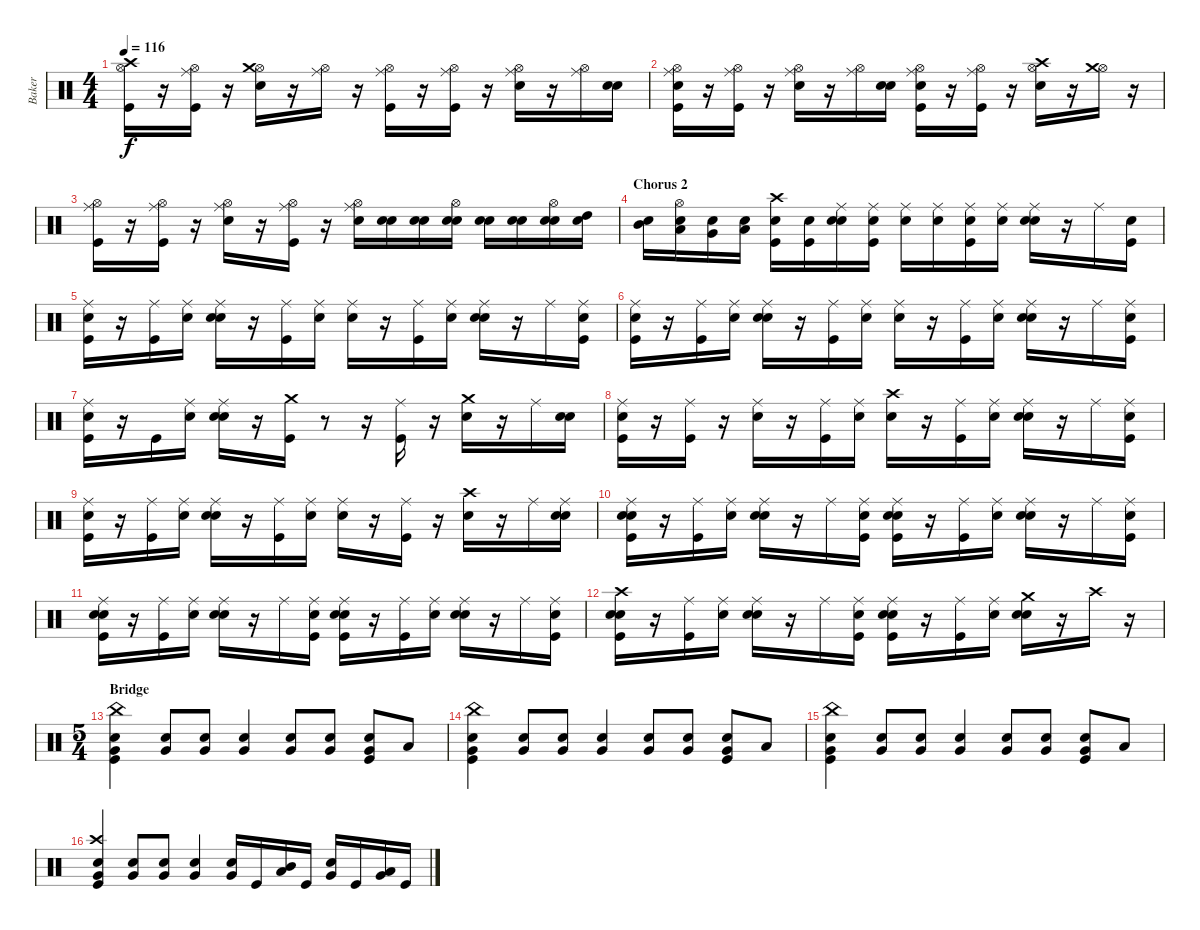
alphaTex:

\track ("Baker" "Baker") {instrument percussion}
\staff {score}
\articulation defaults
\ts (4 4)
\tempo 116
\clef neutral
\ks c
("Kick (hit)" "Hi-Hat (open)" "Crash high (hit)").16{dy f} r.16 ("Kick (hit)" "Hi-Hat (open)" "Ride (middle)").16 r.16 ("Electric Snare (hit)" "Hi-Hat (open)" "Crash medium (hit)").16 r.16 ("Hi-Hat (open)" "Ride (middle)").16 r.16 ("Kick (hit)" "Hi-Hat (open)" "Ride (middle)").16 r.16 ("Kick (hit)" "Hi-Hat (open)" "Ride (middle)").16 r.16 ("Electric Snare (hit)" "Hi-Hat (open)" "Ride (middle)").16 r.16 ("Hi-Hat (open)" "Ride (middle)").16 ("Snare (hit)" "Electric Snare (hit)").16 |
("Snare (hit)" "Kick (hit)" "Hi-Hat (open)" "Ride (middle)").16 r.16 ("Kick (hit)" "Hi-Hat (open)" "Ride (middle)").16 r.16 ("Electric Snare (hit)" "Hi-Hat (open)" "Ride (middle)").16 r.16 ("Hi-Hat (open)" "Ride (middle)").16 ("Snare (hit)" "Electric Snare (hit)").16 ("Snare (hit)" "Kick (hit)" "Hi-Hat (open)" "Ride (middle)").16 r.16 ("Kick (hit)" "Hi-Hat (open)" "Ride (middle)").16 r.16 ("Electric Snare (hit)" "Hi-Hat (open)" "Crash high (hit)").16 r.16 ("Hi-Hat (open)" "Crash medium (hit)").16 r.16 |
("Kick (hit)" "Hi-Hat (open)" "Ride (middle)").16 r.16 ("Kick (hit)" "Hi-Hat (open)" "Ride (middle)").16 r.16 ("Electric Snare (hit)" "Hi-Hat (open)" "Ride (middle)").16 r.16 ("Kick (hit)" "Hi-Hat (open)" "Ride (middle)").16 r.16 ("Electric Snare (hit)" "Hi-Hat (open)" "Ride (middle)").16 ("Snare (hit)" "Electric Snare (hit)").16 ("Snare (hit)" "Electric Snare (hit)").16 ("Snare (hit)" "Electric Snare (hit)" "Hi-Hat (open)").16 ("Snare (hit)" "Electric Snare (hit)").16 ("Snare (hit)" "Electric Snare (hit)").16 ("Snare (hit)" "Electric Snare (hit)" "Hi-Hat (open)").16 ("Snare (hit)" "High Tom (hit)").16 |
\section ("" "Chorus 2")
("Snare (hit)" "Mid Tom (hit)").16 ("Snare (hit)" "Low Tom (hit)" "Hi-Hat (open)").16 ("Snare (hit)" "Very Low Tom (hit)").16 ("Snare (hit)" "Low Floor Tom (hit)").16 ("Snare (hit)" "Crash high (hit)" "Kick (hit)").16 ("Snare (hit)" "Kick (hit)").16 ("Snare (hit)" "Electric Snare (hit)" "Ride (middle)").16 ("Snare (hit)" "Kick (hit)" "Ride (middle)").16 ("Snare (hit)" "Ride (middle)").16 ("Snare (hit)" "Ride (middle)").16 ("Snare (hit)" "Kick (hit)" "Ride (middle)").16 ("Snare (hit)" "Ride (middle)").16 ("Snare (hit)" "Electric Snare (hit)" "Ride (middle)").16 r.16 "Ride (middle)".16 ("Snare (hit)" "Kick (hit)").16 |
("Snare (hit)" "Kick (hit)" "Ride (middle)").16 r.16 ("Kick (hit)" "Ride (middle)").16 ("Snare (hit)" "Ride (middle)").16 ("Snare (hit)" "Electric Snare (hit)" "Ride (middle)").16 r.16 ("Kick (hit)" "Ride (middle)").16 ("Snare (hit)" "Ride (middle)").16 ("Snare (hit)" "Ride (middle)").16 r.16 ("Kick (hit)" "Ride (middle)").16 ("Snare (hit)" "Ride (middle)").16 ("Snare (hit)" "Electric Snare (hit)" "Ride (middle)").16 r.16 "Ride (middle)".16 ("Snare (hit)" "Kick (hit)" "Ride (middle)").16 |
("Snare (hit)" "Kick (hit)" "Ride (middle)").16 r.16 ("Kick (hit)" "Ride (middle)").16 ("Snare (hit)" "Ride (middle)").16 ("Snare (hit)" "Electric Snare (hit)" "Ride (middle)").16 r.16 ("Kick (hit)" "Ride (middle)").16 ("Snare (hit)" "Ride (middle)").16 ("Snare (hit)" "Ride (middle)").16 r.16 ("Kick (hit)" "Ride (middle)").16 ("Snare (hit)" "Ride (middle)").16 ("Snare (hit)" "Electric Snare (hit)" "Ride (middle)").16 r.16 "Ride (middle)".16 ("Snare (hit)" "Kick (hit)" "Ride (middle)").16 |
("Snare (hit)" "Kick (hit)" "Ride (middle)").16 r.16 "Kick (hit)".16 ("Snare (hit)" "Ride (middle)").16 ("Snare (hit)" "Electric Snare (hit)" "Ride (middle)").16 r.16 ("Kick (hit)" "Crash medium (hit)").16 r.8 r.16 ("Kick (hit)" "Ride (middle)").16 r.16 ("Electric Snare (hit)" "Crash medium (hit)").16 r.16 "Ride (middle)".16 ("Snare (hit)" "Electric Snare (hit)").16 |
("Snare (hit)" "Kick (hit)" "Ride (middle)").16 r.16 ("Kick (hit)" "Ride (middle)").16 r.16 ("Electric Snare (hit)" "Ride (middle)").16 r.16 ("Kick (hit)" "Ride (middle)").16 ("Snare (hit)" "Ride (middle)").16 ("Snare (hit)" "Crash high (hit)").16 r.16 ("Kick (hit)" "Ride (middle)").16 ("Snare (hit)" "Ride (middle)").16 ("Snare (hit)" "Electric Snare (hit)" "Ride (middle)").16 r.16 "Ride (middle)".16 ("Snare (hit)" "Kick (hit)" "Ride (middle)").16 |
("Snare (hit)" "Kick (hit)" "Ride (middle)").16 r.16 ("Kick (hit)" "Ride (middle)").16 ("Snare (hit)" "Ride (middle)").16 ("Snare (hit)" "Electric Snare (hit)" "Ride (middle)").16 r.16 ("Kick (hit)" "Ride (middle)").16 ("Snare (hit)" "Ride (middle)").16 ("Snare (hit)" "Ride (middle)").16 r.16 ("Kick (hit)" "Ride (middle)").16 r.16 ("Electric Snare (hit)" "Crash high (hit)").16 r.16 "Ride (middle)".16 ("Snare (hit)" "Electric Snare (hit)" "Ride (middle)").16 |
("Snare (hit)" "Kick (hit)" "Electric Snare (hit)" "Ride (middle)").16 r.16 ("Kick (hit)" "Ride (middle)").16 ("Snare (hit)" "Ride (middle)").16 ("Snare (hit)" "Electric Snare (hit)" "Ride (middle)").16 r.16 "Ride (middle)".16 ("Snare (hit)" "Kick (hit)" "Ride (middle)").16 ("Snare (hit)" "Kick (hit)" "Electric Snare (hit)" "Ride (middle)").16 r.16 ("Kick (hit)" "Ride (middle)").16 ("Snare (hit)" "Ride (middle)").16 ("Snare (hit)" "Electric Snare (hit)" "Ride (middle)").16 r.16 "Ride (middle)".16 ("Snare (hit)" "Kick (hit)" "Ride (middle)").16 |
("Snare (hit)" "Kick (hit)" "Electric Snare (hit)" "Ride (middle)").16 r.16 ("Kick (hit)" "Ride (middle)").16 ("Snare (hit)" "Ride (middle)").16 ("Snare (hit)" "Electric Snare (hit)" "Ride (middle)").16 r.16 "Ride (middle)".16 ("Snare (hit)" "Kick (hit)" "Ride (middle)").16 ("Snare (hit)" "Kick (hit)" "Electric Snare (hit)" "Ride (middle)").16 r.16 ("Kick (hit)" "Ride (middle)").16 ("Snare (hit)" "Ride (middle)").16 ("Snare (hit)" "Electric Snare (hit)" "Ride (middle)").16 r.16 "Ride (middle)".16 ("Snare (hit)" "Kick (hit)" "Ride (middle)").16 |
("Snare (hit)" "Kick (hit)" "Electric Snare (hit)" "Crash high (hit)").16 r.16 ("Kick (hit)" "Ride (middle)").16 ("Snare (hit)" "Ride (middle)").16 ("Snare (hit)" "Electric Snare (hit)" "Ride (middle)").16 r.16 "Ride (middle)".16 ("Snare (hit)" "Kick (hit)" "Ride (middle)").16 ("Snare (hit)" "Kick (hit)" "Electric Snare (hit)" "Ride (middle)").16 r.16 ("Kick (hit)" "Ride (middle)").16 ("Snare (hit)" "Ride (middle)").16 ("Snare (hit)" "Electric Snare (hit)" "Crash medium (hit)").16 r.16 "Crash high (hit)".16 r.16 |
\ts (5 4)
\section ("" "Bridge")
("Kick (hit)" "Electric Snare (hit)" "Very Low Tom (hit)" "China (hit)").4 ("Electric Snare (hit)" "Very Low Tom (hit)").8 ("Electric Snare (hit)" "Very Low Tom (hit)").8 ("Electric Snare (hit)" "Very Low Tom (hit)").4 ("Electric Snare (hit)" "Very Low Tom (hit)").8 ("Electric Snare (hit)" "Very Low Tom (hit)").8 ("Kick (hit)" "Electric Snare (hit)" "Very Low Tom (hit)").8 "Low Floor Tom (hit)".8 |
("Kick (hit)" "Electric Snare (hit)" "Very Low Tom (hit)" "China (hit)").4 ("Electric Snare (hit)" "Very Low Tom (hit)").8 ("Electric Snare (hit)" "Very Low Tom (hit)").8 ("Electric Snare (hit)" "Very Low Tom (hit)").4 ("Electric Snare (hit)" "Very Low Tom (hit)").8 ("Electric Snare (hit)" "Very Low Tom (hit)").8 ("Kick (hit)" "Electric Snare (hit)" "Very Low Tom (hit)").8 "Low Floor Tom (hit)".8 |
("Kick (hit)" "Electric Snare (hit)" "Very Low Tom (hit)" "China (hit)").4 ("Electric Snare (hit)" "Very Low Tom (hit)").8 ("Electric Snare (hit)" "Very Low Tom (hit)").8 ("Electric Snare (hit)" "Very Low Tom (hit)").4 ("Electric Snare (hit)" "Very Low Tom (hit)").8 ("Electric Snare (hit)" "Very Low Tom (hit)").8 ("Kick (hit)" "Electric Snare (hit)" "Very Low Tom (hit)").8 "Low Floor Tom (hit)".8 |
("Kick (hit)" "Electric Snare (hit)" "Very Low Tom (hit)" "Crash high (hit)").4 ("Electric Snare (hit)" "Very Low Tom (hit)").8 ("Electric Snare (hit)" "Very Low Tom (hit)").8 ("Electric Snare (hit)" "Very Low Tom (hit)").4 ("Electric Snare (hit)" "Very Low Tom (hit)").16 "Kick (hit)".16 ("Low Tom (hit)" "Mid Tom (hit)").16 "Kick (hit)".16 ("Electric Snare (hit)" "Very Low Tom (hit)").16 "Kick (hit)".16 ("Low Floor Tom (hit)" "Very Low Tom (hit)").16 "Kick (hit)".16
